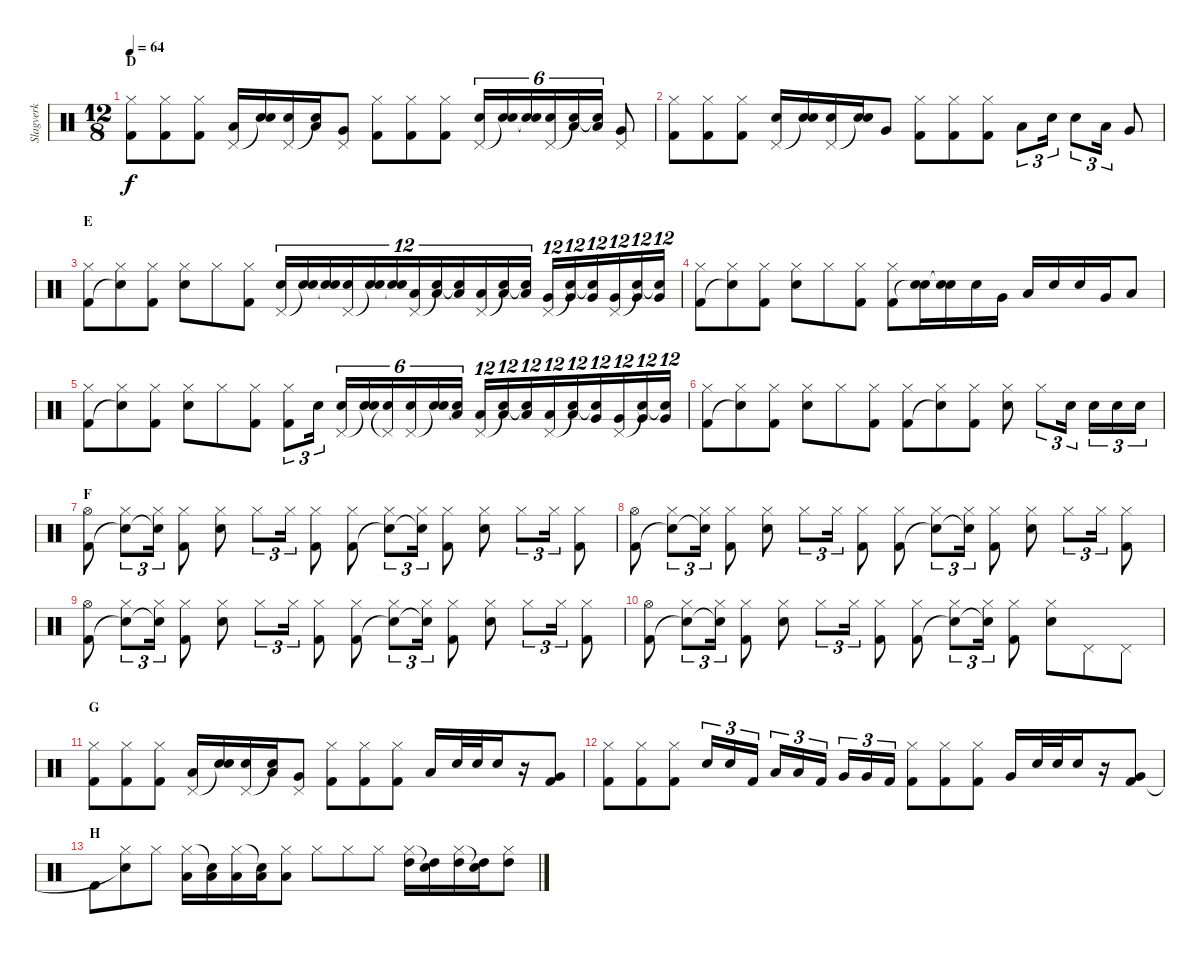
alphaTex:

\track ("Slagverk" "Slagverk") {instrument percussion}
\staff {score}
\articulation defaults
\ts (12 8)
\section ("" "D")
\tempo 64
\clef neutral
\ks c
("Hi-Hat (closed)" "Kick (hit) 2").8{dy f} ("Hi-Hat (closed)" "Kick (hit) 2").8 ("Hi-Hat (closed)" "Kick (hit) 2").8 ("Pedal Hi-Hat (hit)" "Low Tom (hit)").16 ("Snare (hit)"{t} "Snare (hit) 2").16 ("Pedal Hi-Hat (hit)" "Snare (hit) 2").16 ("Snare (hit)"{t} "Low Tom (hit)").16 ("Pedal Hi-Hat (hit)" "Very Low Tom (hit)").8 ("Hi-Hat (closed)" "Kick (hit) 2").8 ("Hi-Hat (closed)" "Kick (hit) 2").8 ("Hi-Hat (closed)" "Kick (hit) 2").8 ("Pedal Hi-Hat (hit)" "Snare (hit) 2").16{tu (6 4)} ("Snare (hit)"{t} "Snare (hit) 2").16{tu (6 4)} ("Snare (hit)"{t} "Snare (hit) 2").16{tu (6 4)} ("Pedal Hi-Hat (hit)" "Snare (hit) 2").16{tu (6 4)} ("Snare (hit)"{t} "Low Tom (hit)").16{tu (6 4)} ("Snare (hit)"{t} "Low Tom (hit)").16{tu (6 4)} ("Pedal Hi-Hat (hit)" "Very Low Tom (hit)").8 |
("Hi-Hat (closed)" "Kick (hit) 2").8 ("Hi-Hat (closed)" "Kick (hit) 2").8 ("Hi-Hat (closed)" "Kick (hit) 2").8 ("Pedal Hi-Hat (hit)" "Snare (hit) 2").16 ("Snare (hit)"{t} "Snare (hit) 2").16 ("Pedal Hi-Hat (hit)" "Snare (hit) 2").16 ("Snare (hit)"{t} "Snare (hit) 2").16 "Very Low Tom (hit)".8 ("Hi-Hat (closed)" "Kick (hit) 2").8 ("Hi-Hat (closed)" "Kick (hit) 2").8 ("Hi-Hat (closed)" "Kick (hit) 2").8 "Low Tom (hit)".8{tu (3 2)} "Snare (hit) 2".16{tu (3 2)} "Snare (hit) 2".8{tu (3 2)} "Low Tom (hit)".16{tu (3 2)} "Very Low Tom (hit)".8 |
\section ("" "E")
("Hi-Hat (closed)" "Kick (hit) 2").8 ("Hi-Hat (closed)" "Snare (hit)"{t}).8 ("Hi-Hat (closed)" "Kick (hit) 2").8 ("Hi-Hat (closed)" "Snare (hit) 2").8 "Hi-Hat (closed)".8 ("Hi-Hat (closed)" "Kick (hit) 2").8 ("Pedal Hi-Hat (hit)" "Snare (hit) 2").16{tu (12 8)} ("Snare (hit)"{t} "Snare (hit) 2").16{tu (12 8)} ("Snare (hit)"{t} "Snare (hit) 2").16{tu (12 8)} ("Pedal Hi-Hat (hit)" "Snare (hit) 2").16{tu (12 8)} ("Snare (hit)"{t} "Snare (hit) 2").16{tu (12 8)} ("Snare (hit)"{t} "Snare (hit) 2").16{tu (12 8)} ("Pedal Hi-Hat (hit)" "Low Tom (hit)").16{tu (12 8)} ("Snare (hit)"{t} "Low Tom (hit)").16{tu (12 8)} ("Snare (hit)"{t} "Low Tom (hit)").16{tu (12 8)} ("Pedal Hi-Hat (hit)" "Low Tom (hit)").16{tu (12 8)} ("Snare (hit)"{t} "Low Tom (hit)").16{tu (12 8)} ("Snare (hit)"{t} "Low Tom (hit)").16{tu (12 8)} ("Pedal Hi-Hat (hit)" "Very Low Tom (hit)").16{tu (12 8)} ("Snare (hit)"{t} "Very Low Tom (hit)").16{tu (12 8)} ("Snare (hit)"{t} "Very Low Tom (hit)").16{tu (12 8)} ("Pedal Hi-Hat (hit)" "Very Low Tom (hit)").16{tu (12 8)} ("Snare (hit)"{t} "Very Low Tom (hit)").16{tu (12 8)} ("Snare (hit)"{t} "Very Low Tom (hit)").16{tu (12 8)} |
("Hi-Hat (closed)" "Kick (hit) 2").8 ("Hi-Hat (closed)" "Snare (hit)"{t}).8 ("Hi-Hat (closed)" "Kick (hit) 2").8 ("Hi-Hat (closed)" "Snare (hit) 2").8 "Hi-Hat (closed)".8 ("Hi-Hat (closed)" "Kick (hit) 2").8 ("Hi-Hat (closed)" "Kick (hit) 2").8 ("Snare (hit) 2" "Snare (hit)"{t}).16 ("Snare (hit) 2" "Snare (hit)"{t}).16 "Snare (hit) 2".16 "Very Low Tom (hit)".16 "Low Floor Tom (hit)".16 "Snare (hit) 2".16 "Snare (hit) 2".16 "Very Low Tom (hit)".16 "Low Floor Tom (hit)".8 |
("Hi-Hat (closed)" "Kick (hit) 2").8 ("Hi-Hat (closed)" "Snare (hit)"{t}).8 ("Hi-Hat (closed)" "Kick (hit) 2").8 ("Hi-Hat (closed)" "Snare (hit) 2").8 "Hi-Hat (closed)".8 ("Hi-Hat (closed)" "Kick (hit) 2").8 ("Hi-Hat (closed)" "Kick (hit) 2").8{tu (3 2)} "Snare (hit) 2".16{tu (3 2)} ("Pedal Hi-Hat (hit)" "Snare (hit) 2").16{tu (6 4)} ("Snare (hit)"{t} "Snare (hit) 2").16{tu (6 4)} ("Pedal Hi-Hat (hit)"{t} "Snare (hit) 2").16{tu (6 4)} ("Pedal Hi-Hat (hit)" "Snare (hit) 2").16{tu (6 4)} ("Snare (hit)"{t} "Snare (hit) 2").16{tu (6 4)} ("Snare (hit)"{t} "Low Tom (hit)").16{tu (6 4)} ("Pedal Hi-Hat (hit)" "Low Tom (hit)").16{tu (12 8)} ("Snare (hit)"{t} "Low Tom (hit)").16{tu (12 8)} ("Snare (hit)"{t} "Low Tom (hit)").16{tu (12 8)} ("Pedal Hi-Hat (hit)" "Low Tom (hit)").16{tu (12 8)} ("Snare (hit)"{t} "Low Tom (hit)").16{tu (12 8)} ("Snare (hit)"{t} "Very Low Tom (hit)").16{tu (12 8)} ("Pedal Hi-Hat (hit)" "Very Low Tom (hit)").16{tu (12 8)} ("Snare (hit)"{t} "Very Low Tom (hit)").16{tu (12 8)} ("Snare (hit)"{t} "Very Low Tom (hit)").16{tu (12 8)} |
("Hi-Hat (closed)" "Kick (hit) 2").8 ("Hi-Hat (closed)" "Snare (hit)"{t}).8 ("Hi-Hat (closed)" "Kick (hit) 2").8 ("Hi-Hat (closed)" "Snare (hit) 2").8 "Hi-Hat (closed)".8 ("Hi-Hat (closed)" "Kick (hit) 2").8 ("Hi-Hat (closed)" "Kick (hit) 2").8 ("Hi-Hat (closed)" "Snare (hit)"{t}).8 ("Hi-Hat (closed)" "Kick (hit) 2").8 ("Hi-Hat (closed)" "Snare (hit) 2").8 "Hi-Hat (closed)".8{tu (3 2)} "Snare (hit) 2".16{tu (3 2)} "Snare (hit) 2".16{tu (3 2)} "Snare (hit) 2".16{tu (3 2)} "Snare (hit) 2".16{tu (3 2)} |
\section ("" "F")
("Hi-Hat (open)" "Kick (hit) 2").8 ("Hi-Hat (closed)" "Snare (hit)"{t}).8{tu (3 2)} ("Hi-Hat (closed)" "Snare (hit)"{t}).16{tu (3 2)} ("Hi-Hat (closed)" "Kick (hit) 2").8 ("Hi-Hat (closed)" "Snare (hit) 2").8 "Hi-Hat (closed)".8{tu (3 2)} "Hi-Hat (closed)".16{tu (3 2)} ("Hi-Hat (closed)" "Kick (hit) 2").8 ("Hi-Hat (closed)" "Kick (hit) 2").8 ("Hi-Hat (closed)" "Snare (hit)"{t}).8{tu (3 2)} ("Hi-Hat (closed)" "Snare (hit)"{t}).16{tu (3 2)} ("Hi-Hat (closed)" "Kick (hit) 2").8 ("Hi-Hat (closed)" "Snare (hit) 2").8 "Hi-Hat (closed)".8{tu (3 2)} "Hi-Hat (closed)".16{tu (3 2)} ("Hi-Hat (closed)" "Kick (hit) 2").8 |
("Hi-Hat (open)" "Kick (hit) 2").8 ("Hi-Hat (closed)" "Snare (hit)"{t}).8{tu (3 2)} ("Hi-Hat (closed)" "Snare (hit)"{t}).16{tu (3 2)} ("Hi-Hat (closed)" "Kick (hit) 2").8 ("Hi-Hat (closed)" "Snare (hit) 2").8 "Hi-Hat (closed)".8{tu (3 2)} "Hi-Hat (closed)".16{tu (3 2)} ("Hi-Hat (closed)" "Kick (hit) 2").8 ("Hi-Hat (closed)" "Kick (hit) 2").8 ("Hi-Hat (closed)" "Snare (hit)"{t}).8{tu (3 2)} ("Hi-Hat (closed)" "Snare (hit)"{t}).16{tu (3 2)} ("Hi-Hat (closed)" "Kick (hit) 2").8 ("Hi-Hat (closed)" "Snare (hit) 2").8 "Hi-Hat (closed)".8{tu (3 2)} "Hi-Hat (closed)".16{tu (3 2)} ("Hi-Hat (closed)" "Kick (hit) 2").8 |
("Hi-Hat (open)" "Kick (hit) 2").8 ("Hi-Hat (closed)" "Snare (hit)"{t}).8{tu (3 2)} ("Hi-Hat (closed)" "Snare (hit)"{t}).16{tu (3 2)} ("Hi-Hat (closed)" "Kick (hit) 2").8 ("Hi-Hat (closed)" "Snare (hit) 2").8 "Hi-Hat (closed)".8{tu (3 2)} "Hi-Hat (closed)".16{tu (3 2)} ("Hi-Hat (closed)" "Kick (hit) 2").8 ("Hi-Hat (closed)" "Kick (hit) 2").8 ("Hi-Hat (closed)" "Snare (hit)"{t}).8{tu (3 2)} ("Hi-Hat (closed)" "Snare (hit)"{t}).16{tu (3 2)} ("Hi-Hat (closed)" "Kick (hit) 2").8 ("Hi-Hat (closed)" "Snare (hit) 2").8 "Hi-Hat (closed)".8{tu (3 2)} "Hi-Hat (closed)".16{tu (3 2)} ("Hi-Hat (closed)" "Kick (hit) 2").8 |
("Hi-Hat (open)" "Kick (hit) 2").8 ("Hi-Hat (closed)" "Snare (hit)"{t}).8{tu (3 2)} ("Hi-Hat (closed)" "Snare (hit)"{t}).16{tu (3 2)} ("Hi-Hat (closed)" "Kick (hit) 2").8 ("Hi-Hat (closed)" "Snare (hit) 2").8 "Hi-Hat (closed)".8{tu (3 2)} "Hi-Hat (closed)".16{tu (3 2)} ("Hi-Hat (closed)" "Kick (hit) 2").8 ("Hi-Hat (closed)" "Kick (hit) 2").8 ("Hi-Hat (closed)" "Snare (hit)"{t}).8{tu (3 2)} ("Hi-Hat (closed)" "Snare (hit)"{t}).16{tu (3 2)} ("Hi-Hat (closed)" "Kick (hit) 2").8 ("Hi-Hat (closed)" "Snare (hit) 2").8 "Pedal Hi-Hat (hit)".8 "Pedal Hi-Hat (hit)".8 |
\section ("" "G")
("Hi-Hat (closed)" "Kick (hit) 2").8 ("Hi-Hat (closed)" "Kick (hit) 2").8 ("Hi-Hat (closed)" "Kick (hit) 2").8 ("Pedal Hi-Hat (hit)" "Low Tom (hit)").16 ("Snare (hit)"{t} "Snare (hit) 2").16 ("Pedal Hi-Hat (hit)" "Snare (hit) 2").16 ("Snare (hit)"{t} "Low Tom (hit)").16 ("Pedal Hi-Hat (hit)" "Very Low Tom (hit)").8 ("Hi-Hat (closed)" "Kick (hit) 2").8 ("Hi-Hat (closed)" "Kick (hit) 2").8 ("Hi-Hat (closed)" "Kick (hit) 2").8 "Low Tom (hit)".16 "Snare (hit) 2".32 "Snare (hit) 2".32 "Snare (hit) 2".16 r.16 ("Very Low Tom (hit)" "Kick (hit) 2").8 |
("Hi-Hat (closed)" "Kick (hit) 2").8 ("Hi-Hat (closed)" "Kick (hit) 2").8 ("Hi-Hat (closed)" "Kick (hit) 2").8 "Snare (hit) 2".16{tu (3 2)} "Snare (hit) 2".16{tu (3 2)} "Kick (hit) 2".16{tu (3 2)} "Low Tom (hit)".16{tu (3 2)} "Low Tom (hit)".16{tu (3 2)} "Kick (hit) 2".16{tu (3 2)} "Very Low Tom (hit)".16{tu (3 2)} "Very Low Tom (hit)".16{tu (3 2)} "Kick (hit) 2".16{tu (3 2)} ("Hi-Hat (closed)" "Kick (hit) 2").8 ("Hi-Hat (closed)" "Kick (hit) 2").8 ("Hi-Hat (closed)" "Kick (hit) 2").8 "Very Low Tom (hit)".16 "Snare (hit) 2".32 "Snare (hit) 2".32 "Snare (hit) 2".16 r.16 ("Very Low Tom (hit)" "Kick (hit) 2").8 |
\section ("" "H")
"Kick (hit) 2".8 ("Hi-Hat (closed)" "Snare (hit)"{t}).8 "Hi-Hat (closed)".8 ("Hi-Hat (closed)" "Low Tom (hit)").16 ("Snare (hit)"{t} "Low Tom (hit)").16 ("Hi-Hat (closed)" "Low Tom (hit)").16 ("Snare (hit)"{t} "Low Tom (hit)").16 ("Hi-Hat (closed)" "Low Tom (hit)").8 "Hi-Hat (closed)".8 "Hi-Hat (closed)".8 "Hi-Hat (closed)".8 ("Hi-Hat (closed)" "High Tom (hit)").16 ("Snare (hit)"{t} "High Tom (hit)").16 ("Hi-Hat (closed)" "High Tom (hit)").16 ("Snare (hit)"{t} "High Tom (hit)").16 ("Hi-Hat (closed)" "High Tom (hit)").8
